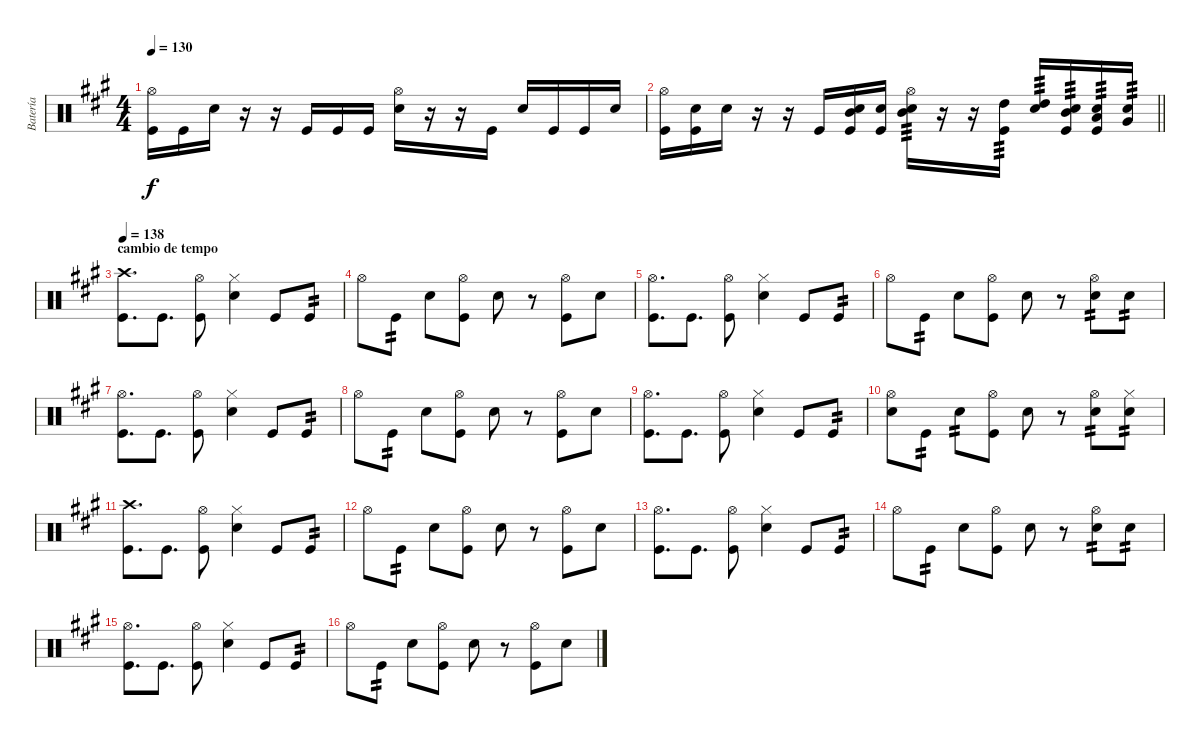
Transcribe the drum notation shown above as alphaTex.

\track ("Batería" "Batería") {instrument percussion}
\staff {score}
\articulation defaults
\ts (4 4)
\tempo 130
\clef neutral
\ks a
("Hi-Hat (open)" "Kick (hit)").16{dy f} "Kick (hit)".16 "Electric Snare (hit)".16 r.16 r.16 "Kick (hit)".16 "Kick (hit)".16 "Kick (hit)".16 ("Hi-Hat (open)" "Electric Snare (hit)").16 r.16 r.16 "Kick (hit)".16 "Electric Snare (hit)".16 "Kick (hit)".16 "Kick (hit)".16 "Electric Snare (hit)".16 |
\barLineRight lightlight
("Hi-Hat (open)" "Kick (hit)").16 ("Electric Snare (hit)" "Kick (hit)").16 "Electric Snare (hit)".16 r.16 r.16 "Kick (hit)".16 ("Mid Tom (hit)" "Electric Snare (hit)" "Kick (hit)").16 ("Electric Snare (hit)" "Kick (hit)").16 ("Hi-Hat (open)" "Mid Tom (hit)" "Electric Snare (hit)").16{tp 3} r.16 r.16 ("High Tom (hit)" "Kick (hit)").16{tp 3} ("High Tom (hit)" "Electric Snare (hit)").16{tp 3} ("Mid Tom (hit)" "Electric Snare (hit)" "Kick (hit)").16{tp 3} ("Low Tom (hit)" "Electric Snare (hit)" "Kick (hit)").16{tp 3} ("Very Low Tom (hit)" "Electric Snare (hit)").16{tp 3} |
\section ("" "cambio de tempo")
\tempo 138
("Crash high (hit)" "Kick (hit)").8{d} "Kick (hit)".8{d} ("Hi-Hat (open)" "Kick (hit)").8 ("Hi-Hat (closed)" "Electric Snare (hit)").4 "Kick (hit)".8 "Kick (hit)".8{tp 2} |
"Hi-Hat (open)".8 "Kick (hit)".8{tp 2} "Electric Snare (hit)".8 ("Hi-Hat (open)" "Kick (hit)").8 "Electric Snare (hit)".8 r.8 ("Hi-Hat (open)" "Kick (hit)").8 "Electric Snare (hit)".8 |
("Hi-Hat (open)" "Kick (hit)").8{d} "Kick (hit)".8{d} ("Hi-Hat (open)" "Kick (hit)").8 ("Hi-Hat (closed)" "Electric Snare (hit)").4 "Kick (hit)".8 "Kick (hit)".8{tp 2} |
"Hi-Hat (open)".8 "Kick (hit)".8{tp 2} "Electric Snare (hit)".8 ("Hi-Hat (open)" "Kick (hit)").8 "Electric Snare (hit)".8 r.8 ("Hi-Hat (open)" "Electric Snare (hit)").8{tp 2} "Electric Snare (hit)".8{tp 2} |
("Hi-Hat (open)" "Kick (hit)").8{d} "Kick (hit)".8{d} ("Hi-Hat (open)" "Kick (hit)").8 ("Hi-Hat (closed)" "Electric Snare (hit)").4 "Kick (hit)".8 "Kick (hit)".8{tp 2} |
"Hi-Hat (open)".8 "Kick (hit)".8{tp 2} "Electric Snare (hit)".8 ("Hi-Hat (open)" "Kick (hit)").8 "Electric Snare (hit)".8 r.8 ("Hi-Hat (open)" "Kick (hit)").8 "Electric Snare (hit)".8 |
("Hi-Hat (open)" "Kick (hit)").8{d} "Kick (hit)".8{d} ("Hi-Hat (open)" "Kick (hit)").8 ("Hi-Hat (closed)" "Electric Snare (hit)").4 "Kick (hit)".8 "Kick (hit)".8{tp 2} |
("Hi-Hat (open)" "Electric Snare (hit)").8 "Kick (hit)".8{tp 2} "Electric Snare (hit)".8{tp 2} ("Hi-Hat (open)" "Kick (hit)").8 "Electric Snare (hit)".8 r.8 ("Hi-Hat (open)" "Electric Snare (hit)").8{tp 2} ("Hi-Hat (closed)" "Electric Snare (hit)").8{tp 2} |
("Crash high (hit)" "Kick (hit)").8{d} "Kick (hit)".8{d} ("Hi-Hat (open)" "Kick (hit)").8 ("Hi-Hat (closed)" "Electric Snare (hit)").4 "Kick (hit)".8 "Kick (hit)".8{tp 2} |
"Hi-Hat (open)".8 "Kick (hit)".8{tp 2} "Electric Snare (hit)".8 ("Hi-Hat (open)" "Kick (hit)").8 "Electric Snare (hit)".8 r.8 ("Hi-Hat (open)" "Kick (hit)").8 "Electric Snare (hit)".8 |
("Hi-Hat (open)" "Kick (hit)").8{d} "Kick (hit)".8{d} ("Hi-Hat (open)" "Kick (hit)").8 ("Hi-Hat (closed)" "Electric Snare (hit)").4 "Kick (hit)".8 "Kick (hit)".8{tp 2} |
"Hi-Hat (open)".8 "Kick (hit)".8{tp 2} "Electric Snare (hit)".8 ("Hi-Hat (open)" "Kick (hit)").8 "Electric Snare (hit)".8 r.8 ("Hi-Hat (open)" "Electric Snare (hit)").8{tp 2} "Electric Snare (hit)".8{tp 2} |
("Hi-Hat (open)" "Kick (hit)").8{d} "Kick (hit)".8{d} ("Hi-Hat (open)" "Kick (hit)").8 ("Hi-Hat (closed)" "Electric Snare (hit)").4 "Kick (hit)".8 "Kick (hit)".8{tp 2} |
"Hi-Hat (open)".8 "Kick (hit)".8{tp 2} "Electric Snare (hit)".8 ("Hi-Hat (open)" "Kick (hit)").8 "Electric Snare (hit)".8 r.8 ("Hi-Hat (open)" "Kick (hit)").8 "Electric Snare (hit)".8
